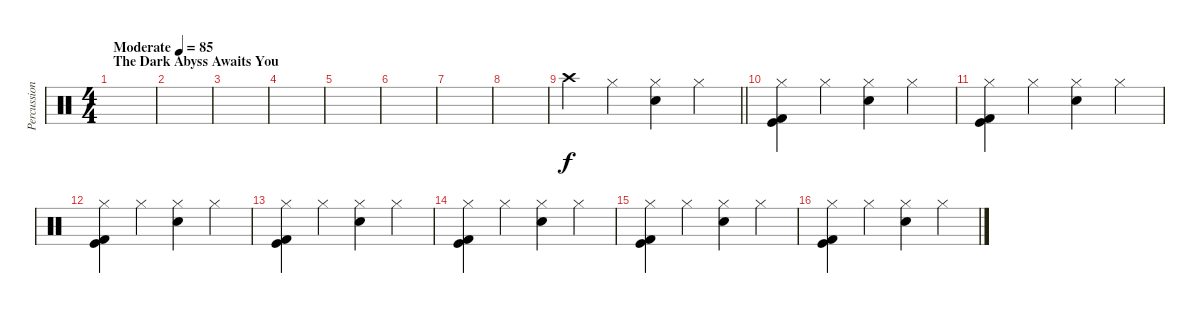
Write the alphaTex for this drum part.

\track ("Percussion" "Percussion") {instrument percussion}
\staff {score}
\articulation defaults
\ts (4 4)
\section ("" "The Dark Abyss Awaits You")
\tempo (85 "Moderate")
\clef neutral
\ks c
|
|
|
|
|
|
|
|
\barLineRight lightlight "Crash high (hit)".4 "Hi-Hat (closed)".4
("Hi-Hat (closed)" "Electric Snare (hit)").4 "Hi-Hat (closed)".4 |
\section ("" "")
("Hi-Hat (closed)" "Kick (hit) 2" "Kick (hit)").4 "Hi-Hat (closed)".4 ("Hi-Hat (closed)" "Electric Snare (hit)").4 "Hi-Hat (closed)".4 |
("Hi-Hat (closed)" "Kick (hit) 2" "Kick (hit)").4 "Hi-Hat (closed)".4 ("Hi-Hat (closed)" "Electric Snare (hit)").4 "Hi-Hat (closed)".4 |
("Hi-Hat (closed)" "Kick (hit) 2" "Kick (hit)").4 "Hi-Hat (closed)".4 ("Hi-Hat (closed)" "Electric Snare (hit)").4 "Hi-Hat (closed)".4 |
("Hi-Hat (closed)" "Kick (hit) 2" "Kick (hit)").4 "Hi-Hat (closed)".4 ("Hi-Hat (closed)" "Electric Snare (hit)").4 "Hi-Hat (closed)".4 |
("Hi-Hat (closed)" "Kick (hit) 2" "Kick (hit)").4 "Hi-Hat (closed)".4 ("Hi-Hat (closed)" "Electric Snare (hit)").4 "Hi-Hat (closed)".4 |
("Hi-Hat (closed)" "Kick (hit) 2" "Kick (hit)").4 "Hi-Hat (closed)".4 ("Hi-Hat (closed)" "Electric Snare (hit)").4 "Hi-Hat (closed)".4 |
("Hi-Hat (closed)" "Kick (hit) 2" "Kick (hit)").4 "Hi-Hat (closed)".4 ("Hi-Hat (closed)" "Electric Snare (hit)").4 "Hi-Hat (closed)".4
